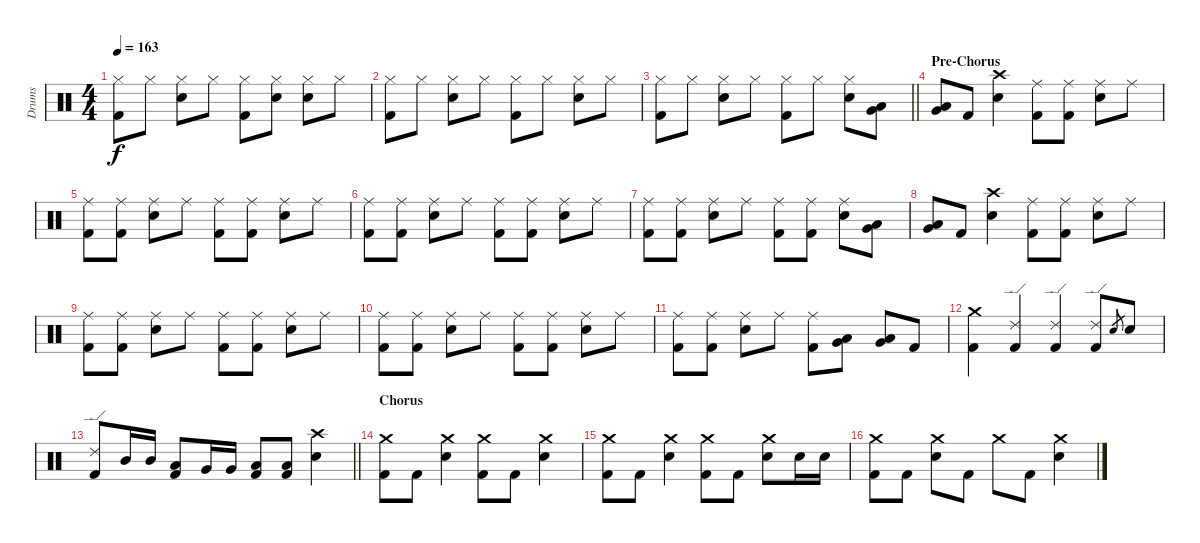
\track ("Drums" "Drums") {instrument percussion}
\staff {score}
\articulation defaults
\ts (4 4)
\tempo 163
\clef neutral
\ks c
("Hi-Hat (closed)" "Kick (hit) 2").8{dy f} "Hi-Hat (closed)".8 ("Hi-Hat (closed)" "Electric Snare (hit)").8 "Hi-Hat (closed)".8 ("Hi-Hat (closed)" "Kick (hit) 2").8 ("Hi-Hat (closed)" "Electric Snare (hit)").8 ("Hi-Hat (closed)" "Electric Snare (hit)").8 "Hi-Hat (closed)".8 |
("Hi-Hat (closed)" "Kick (hit) 2").8 "Hi-Hat (closed)".8 ("Hi-Hat (closed)" "Electric Snare (hit)").8 "Hi-Hat (closed)".8 ("Hi-Hat (closed)" "Kick (hit) 2").8 "Hi-Hat (closed)".8 ("Hi-Hat (closed)" "Electric Snare (hit)").8 "Hi-Hat (closed)".8 |
\barLineRight lightlight
("Hi-Hat (closed)" "Kick (hit) 2").8 "Hi-Hat (closed)".8 ("Hi-Hat (closed)" "Electric Snare (hit)").8 "Hi-Hat (closed)".8 ("Hi-Hat (closed)" "Kick (hit) 2").8 "Hi-Hat (closed)".8 ("Hi-Hat (closed)" "Electric Snare (hit)").8 ("Low Floor Tom (hit)" "Very Low Tom (hit)").8 |
\section ("" "Pre-Chorus")
("Low Floor Tom (hit)" "Very Low Tom (hit)").8 "Kick (hit) 2".8 ("Crash high (hit)" "Electric Snare (hit)").4 ("Ride (middle)" "Kick (hit) 2").8 ("Ride (middle)" "Kick (hit) 2").8 ("Ride (middle)" "Electric Snare (hit)").8 "Ride (middle)".8 |
("Ride (middle)" "Kick (hit) 2").8 ("Ride (middle)" "Kick (hit) 2").8 ("Ride (middle)" "Electric Snare (hit)").8 "Ride (middle)".8 ("Ride (middle)" "Kick (hit) 2").8 ("Ride (middle)" "Kick (hit) 2").8 ("Ride (middle)" "Electric Snare (hit)").8 "Ride (middle)".8 |
("Ride (middle)" "Kick (hit) 2").8 ("Ride (middle)" "Kick (hit) 2").8 ("Ride (middle)" "Electric Snare (hit)").8 "Ride (middle)".8 ("Ride (middle)" "Kick (hit) 2").8 ("Ride (middle)" "Kick (hit) 2").8 ("Ride (middle)" "Electric Snare (hit)").8 "Ride (middle)".8 |
("Ride (middle)" "Kick (hit) 2").8 ("Ride (middle)" "Kick (hit) 2").8 ("Ride (middle)" "Electric Snare (hit)").8 "Ride (middle)".8 ("Ride (middle)" "Kick (hit) 2").8 ("Ride (middle)" "Kick (hit) 2").8 ("Ride (middle)" "Electric Snare (hit)").8 ("Very Low Tom (hit)" "Low Floor Tom (hit)").8 |
("Low Floor Tom (hit)" "Very Low Tom (hit)").8 "Kick (hit) 2".8 ("Crash high (hit)" "Electric Snare (hit)").4 ("Ride (middle)" "Kick (hit) 2").8 ("Ride (middle)" "Kick (hit) 2").8 ("Ride (middle)" "Electric Snare (hit)").8 "Ride (middle)".8 |
("Ride (middle)" "Kick (hit) 2").8 ("Ride (middle)" "Kick (hit) 2").8 ("Ride (middle)" "Electric Snare (hit)").8 "Ride (middle)".8 ("Ride (middle)" "Kick (hit) 2").8 ("Ride (middle)" "Kick (hit) 2").8 ("Ride (middle)" "Electric Snare (hit)").8 "Ride (middle)".8 |
("Ride (middle)" "Kick (hit) 2").8 ("Ride (middle)" "Kick (hit) 2").8 ("Ride (middle)" "Electric Snare (hit)").8 "Ride (middle)".8 ("Ride (middle)" "Kick (hit) 2").8 ("Ride (middle)" "Kick (hit) 2").8 ("Ride (middle)" "Electric Snare (hit)").8 "Ride (middle)".8 |
("Ride (middle)" "Kick (hit) 2").8 ("Ride (middle)" "Kick (hit) 2").8 ("Ride (middle)" "Electric Snare (hit)").8 "Ride (middle)".8 ("Ride (middle)" "Kick (hit) 2").8 ("Low Floor Tom (hit)" "Very Low Tom (hit)").8 ("Low Floor Tom (hit)" "Very Low Tom (hit)").8 "Kick (hit) 2".8 |
("Crash medium (hit)" "Kick (hit) 2").4 ("Ride (edge) 2" "Kick (hit) 2").4 ("Ride (edge) 2" "Kick (hit) 2").4 ("Ride (edge) 2" "Kick (hit) 2").8 "Electric Snare (hit)".8{gr} "Electric Snare (hit)".8 |
\barLineRight lightlight
("Ride (edge) 2" "Kick (hit) 2").8 "Mid Tom (hit)".16 "Mid Tom (hit)".16 ("Low Tom (hit)" "Kick (hit) 2").8 "Very Low Tom (hit)".16 "Very Low Tom (hit)".16 ("Low Tom (hit)" "Kick (hit) 2").8 ("Low Floor Tom (hit)" "Kick (hit) 2").8 ("Crash high (hit)" "Electric Snare (hit)").4 |
\section ("" "Chorus")
("Crash medium (hit)" "Kick (hit) 2").8 "Kick (hit) 2".8 ("Crash medium (hit)" "Electric Snare (hit)").4 ("Crash medium (hit)" "Kick (hit) 2").8 "Kick (hit) 2".8 ("Crash medium (hit)" "Electric Snare (hit)").4 |
("Crash medium (hit)" "Kick (hit) 2").8 "Kick (hit) 2".8 ("Crash medium (hit)" "Electric Snare (hit)").4 ("Crash medium (hit)" "Kick (hit) 2").8 "Kick (hit) 2".8 ("Crash medium (hit)" "Electric Snare (hit)").8 "Electric Snare (hit)".16 "Electric Snare (hit)".16 |
("Crash medium (hit)" "Kick (hit) 2").8 "Kick (hit) 2".8 ("Crash medium (hit)" "Electric Snare (hit)").8 "Kick (hit) 2".8 "Crash medium (hit)".8 "Kick (hit) 2".8 ("Crash medium (hit)" "Electric Snare (hit)").4
